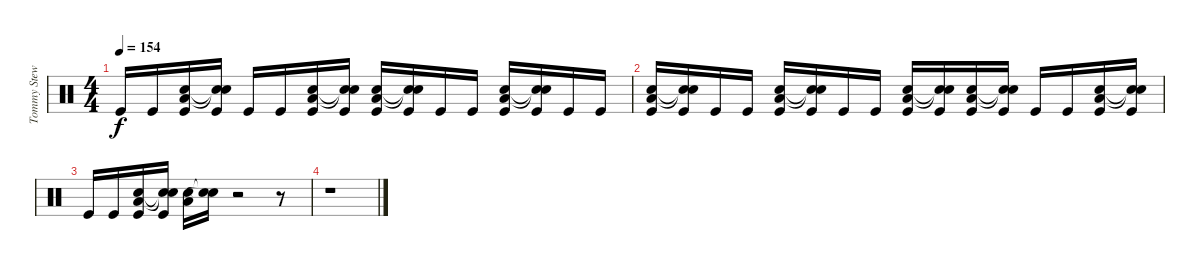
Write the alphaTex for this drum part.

\track ("Tommy Stewart" "Tommy Stew") {instrument percussion}
\staff {score}
\articulation defaults
\ts (4 4)
\tempo 154
\clef neutral
\ks c "Kick (hit)".16{dy f} "Kick (hit)".16
("Low Tom (hit)" "Snare (hit) 2" "Kick (hit)").16 ("Snare (hit)"{t} "Snare (hit)"{t} "Kick (hit)").16 "Kick (hit)".16 "Kick (hit)".16 ("Low Tom (hit)" "Snare (hit) 2" "Kick (hit)").16 ("Snare (hit)"{t} "Snare (hit)"{t} "Kick (hit)").16 ("Low Tom (hit)" "Snare (hit) 2" "Kick (hit)").16 ("Snare (hit)"{t} "Snare (hit)"{t} "Kick (hit)").16 "Kick (hit)".16 "Kick (hit)".16 ("Low Tom (hit)" "Snare (hit) 2" "Kick (hit)").16 ("Snare (hit)"{t} "Snare (hit)"{t} "Kick (hit)").16 "Kick (hit)".16 "Kick (hit)".16 |
("Low Tom (hit)" "Snare (hit) 2" "Kick (hit)").16 ("Snare (hit)"{t} "Snare (hit)"{t} "Kick (hit)").16 "Kick (hit)".16 "Kick (hit)".16 ("Low Tom (hit)" "Snare (hit) 2" "Kick (hit)").16 ("Snare (hit)"{t} "Snare (hit)"{t} "Kick (hit)").16 "Kick (hit)".16 "Kick (hit)".16 ("Low Tom (hit)" "Snare (hit) 2" "Kick (hit)").16 ("Snare (hit)"{t} "Snare (hit) 2"{t} "Kick (hit)").16 ("Low Tom (hit)" "Snare (hit) 2" "Kick (hit)").16 ("Snare (hit)"{t} "Snare (hit)"{t} "Kick (hit)").16 "Kick (hit)".16 "Kick (hit)".16 ("Low Tom (hit)" "Snare (hit) 2" "Kick (hit)").16 ("Snare (hit)"{t} "Snare (hit)"{t} "Kick (hit)").16 |
"Kick (hit)".16 "Kick (hit)".16 ("Low Tom (hit)" "Snare (hit) 2" "Kick (hit)").16 ("Snare (hit)"{t} "Snare (hit)"{t} "Kick (hit)").16 ("Low Tom (hit)" "Snare (hit) 2").16 ("Snare (hit)"{t} "Snare (hit)"{t}).16 r.2 r.8 |
r.1
